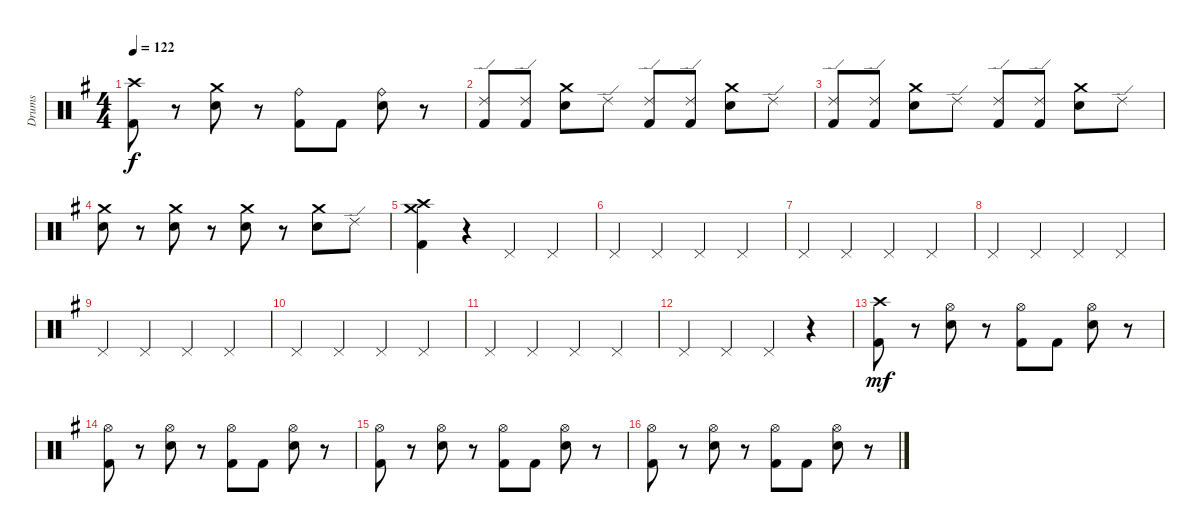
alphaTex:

\track ("Drums" "Drums") {instrument percussion}
\staff {score}
\articulation defaults
\ts (4 4)
\tempo 122
\clef neutral
\ks g
("Crash high (hit)" "Kick (hit) 2").8{dy f} r.8 ("Crash medium (hit)" "Electric Snare (hit)").8 r.8 ("Ride (bell)" "Kick (hit) 2").8 "Kick (hit) 2".8 ("Ride (bell)" "Electric Snare (hit)").8 r.8 |
("Ride (edge) 2" "Kick (hit) 2").8 ("Ride (edge) 2" "Kick (hit) 2").8 ("Crash medium (hit)" "Electric Snare (hit)").8 "Ride (edge) 2".8 ("Ride (edge) 2" "Kick (hit) 2").8 ("Ride (edge) 2" "Kick (hit) 2").8 ("Crash medium (hit)" "Electric Snare (hit)").8 "Ride (edge) 2".8 |
("Ride (edge) 2" "Kick (hit) 2").8 ("Ride (edge) 2" "Kick (hit) 2").8 ("Crash medium (hit)" "Electric Snare (hit)").8 "Ride (edge) 2".8 ("Ride (edge) 2" "Kick (hit) 2").8 ("Ride (edge) 2" "Kick (hit) 2").8 ("Crash medium (hit)" "Electric Snare (hit)").8 "Ride (edge) 2".8 |
("Crash medium (hit)" "Electric Snare (hit)").8 r.8 ("Crash medium (hit)" "Electric Snare (hit)").8 r.8 ("Crash medium (hit)" "Electric Snare (hit)").8 r.8 ("Crash medium (hit)" "Electric Snare (hit)").8 "Ride (edge) 2".8 |
("Crash high (hit)" "Crash medium (hit)" "Kick (hit) 2").4 r.4 "Pedal Hi-Hat (hit)".4 "Pedal Hi-Hat (hit)".4 |
"Pedal Hi-Hat (hit)".4 "Pedal Hi-Hat (hit)".4 "Pedal Hi-Hat (hit)".4 "Pedal Hi-Hat (hit)".4 |
"Pedal Hi-Hat (hit)".4 "Pedal Hi-Hat (hit)".4 "Pedal Hi-Hat (hit)".4 "Pedal Hi-Hat (hit)".4 |
"Pedal Hi-Hat (hit)".4 "Pedal Hi-Hat (hit)".4 "Pedal Hi-Hat (hit)".4 "Pedal Hi-Hat (hit)".4 |
"Pedal Hi-Hat (hit)".4 "Pedal Hi-Hat (hit)".4 "Pedal Hi-Hat (hit)".4 "Pedal Hi-Hat (hit)".4 |
"Pedal Hi-Hat (hit)".4 "Pedal Hi-Hat (hit)".4 "Pedal Hi-Hat (hit)".4 "Pedal Hi-Hat (hit)".4 |
"Pedal Hi-Hat (hit)".4 "Pedal Hi-Hat (hit)".4 "Pedal Hi-Hat (hit)".4 "Pedal Hi-Hat (hit)".4 |
"Pedal Hi-Hat (hit)".4 "Pedal Hi-Hat (hit)".4 "Pedal Hi-Hat (hit)".4 r.4 |
("Crash high (hit)" "Kick (hit) 2").8{dy mf} r.8 ("Hi-Hat (open)" "Electric Snare (hit)").8 r.8 ("Hi-Hat (open)" "Kick (hit) 2").8 "Kick (hit) 2".8 ("Hi-Hat (open)" "Electric Snare (hit)").8 r.8 |
("Hi-Hat (open)" "Kick (hit) 2").8 r.8 ("Hi-Hat (open)" "Electric Snare (hit)").8 r.8 ("Hi-Hat (open)" "Kick (hit) 2").8 "Kick (hit) 2".8 ("Hi-Hat (open)" "Electric Snare (hit)").8 r.8 |
("Hi-Hat (open)" "Kick (hit) 2").8 r.8 ("Hi-Hat (open)" "Electric Snare (hit)").8 r.8 ("Hi-Hat (open)" "Kick (hit) 2").8 "Kick (hit) 2".8 ("Hi-Hat (open)" "Electric Snare (hit)").8 r.8 |
("Hi-Hat (open)" "Kick (hit) 2").8 r.8 ("Hi-Hat (open)" "Electric Snare (hit)").8 r.8 ("Hi-Hat (open)" "Kick (hit) 2").8 "Kick (hit) 2".8 ("Hi-Hat (open)" "Electric Snare (hit)").8 r.8
